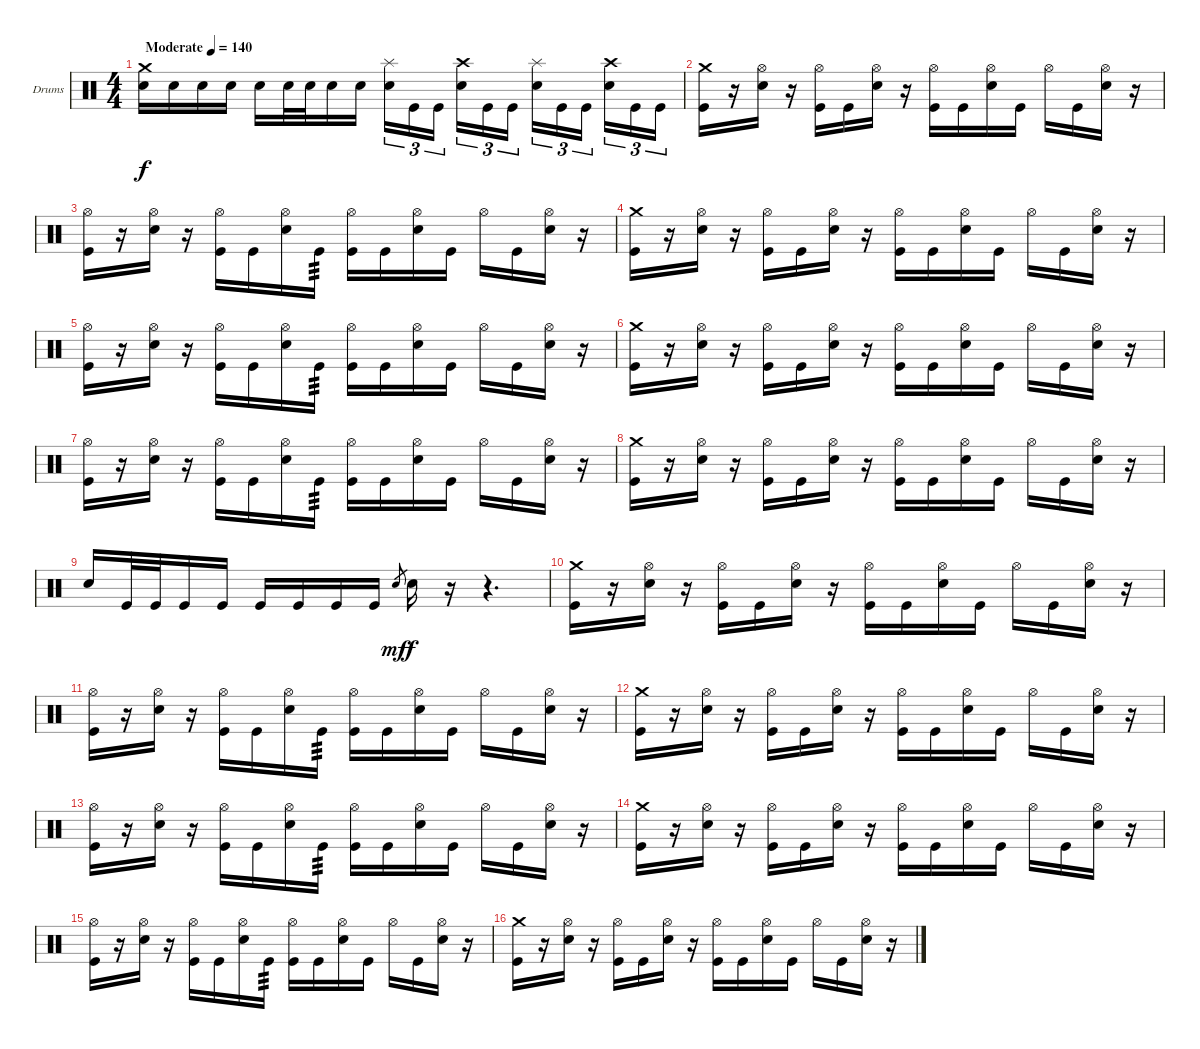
\bracketExtendMode groupsimilarinstruments
\firstSystemTrackNameOrientation horizontal
\otherSystemsTrackNameOrientation horizontal
\track ("Drumkit" "Drums") {instrument percussion}
\staff {score}
\articulation defaults
\ts (4 4)
\beaming (8 2 2 2 2)
\tempo (140 "Moderate")
\clef neutral
\ks c
("Crash medium (hit)" "Snare (hit) 2").16{dy f} "Snare (hit) 2".16 "Snare (hit) 2".16 "Snare (hit) 2".16 "Snare (hit) 2".16 "Snare (hit) 2".32 "Snare (hit) 2".32 "Snare (hit) 2".16 "Snare (hit) 2".16 ("Splash (hit)" "Snare (hit) 2").16{tu (3 2)} "Kick (hit)".16{tu (3 2)} "Kick (hit)".16{tu (3 2)} ("Crash high (hit)" "Snare (hit) 2").16{tu (3 2)} "Kick (hit)".16{tu (3 2)} "Kick (hit)".16{tu (3 2)} ("Splash (hit)" "Snare (hit) 2").16{tu (3 2)} "Kick (hit)".16{tu (3 2)} "Kick (hit)".16{tu (3 2)} ("Crash high (hit)" "Snare (hit) 2").16{tu (3 2)} "Kick (hit)".16{tu (3 2)} "Kick (hit)".16{tu (3 2)} |
("Crash medium (hit)" "Kick (hit)").16 r.16 ("Hi-Hat (open)" "Snare (hit) 2").16 r.16 ("Hi-Hat (open)" "Kick (hit)").16 "Kick (hit)".16 ("Hi-Hat (open)" "Snare (hit) 2").16 r.16 ("Hi-Hat (open)" "Kick (hit)").16 "Kick (hit)".16 ("Hi-Hat (open)" "Snare (hit) 2").16 "Kick (hit)".16 "Hi-Hat (open)".16 "Kick (hit)".16 ("Hi-Hat (open)" "Snare (hit) 2").16 r.16 |
("Hi-Hat (open)" "Kick (hit)").16 r.16 ("Hi-Hat (open)" "Snare (hit) 2").16 r.16 ("Hi-Hat (open)" "Kick (hit)").16 "Kick (hit)".16 ("Hi-Hat (open)" "Snare (hit) 2").16 "Kick (hit)".16{tp 3} ("Hi-Hat (open)" "Kick (hit)").16 "Kick (hit)".16 ("Hi-Hat (open)" "Snare (hit) 2").16 "Kick (hit)".16 "Hi-Hat (open)".16 "Kick (hit)".16 ("Hi-Hat (open)" "Snare (hit) 2").16 r.16 |
("Crash medium (hit)" "Kick (hit)").16 r.16 ("Hi-Hat (open)" "Snare (hit) 2").16 r.16 ("Hi-Hat (open)" "Kick (hit)").16 "Kick (hit)".16 ("Hi-Hat (open)" "Snare (hit) 2").16 r.16 ("Hi-Hat (open)" "Kick (hit)").16 "Kick (hit)".16 ("Hi-Hat (open)" "Snare (hit) 2").16 "Kick (hit)".16 "Hi-Hat (open)".16 "Kick (hit)".16 ("Hi-Hat (open)" "Snare (hit) 2").16 r.16 |
("Hi-Hat (open)" "Kick (hit)").16 r.16 ("Hi-Hat (open)" "Snare (hit) 2").16 r.16 ("Hi-Hat (open)" "Kick (hit)").16 "Kick (hit)".16 ("Hi-Hat (open)" "Snare (hit) 2").16 "Kick (hit)".16{tp 3} ("Hi-Hat (open)" "Kick (hit)").16 "Kick (hit)".16 ("Hi-Hat (open)" "Snare (hit) 2").16 "Kick (hit)".16 "Hi-Hat (open)".16 "Kick (hit)".16 ("Hi-Hat (open)" "Snare (hit) 2").16 r.16 |
("Crash medium (hit)" "Kick (hit)").16 r.16 ("Hi-Hat (open)" "Snare (hit) 2").16 r.16 ("Hi-Hat (open)" "Kick (hit)").16 "Kick (hit)".16 ("Hi-Hat (open)" "Snare (hit) 2").16 r.16 ("Hi-Hat (open)" "Kick (hit)").16 "Kick (hit)".16 ("Hi-Hat (open)" "Snare (hit) 2").16 "Kick (hit)".16 "Hi-Hat (open)".16 "Kick (hit)".16 ("Hi-Hat (open)" "Snare (hit) 2").16 r.16 |
("Hi-Hat (open)" "Kick (hit)").16 r.16 ("Hi-Hat (open)" "Snare (hit) 2").16 r.16 ("Hi-Hat (open)" "Kick (hit)").16 "Kick (hit)".16 ("Hi-Hat (open)" "Snare (hit) 2").16 "Kick (hit)".16{tp 3} ("Hi-Hat (open)" "Kick (hit)").16 "Kick (hit)".16 ("Hi-Hat (open)" "Snare (hit) 2").16 "Kick (hit)".16 "Hi-Hat (open)".16 "Kick (hit)".16 ("Hi-Hat (open)" "Snare (hit) 2").16 r.16 |
("Crash medium (hit)" "Kick (hit)").16 r.16 ("Hi-Hat (open)" "Snare (hit) 2").16 r.16 ("Hi-Hat (open)" "Kick (hit)").16 "Kick (hit)".16 ("Hi-Hat (open)" "Snare (hit) 2").16 r.16 ("Hi-Hat (open)" "Kick (hit)").16 "Kick (hit)".16 ("Hi-Hat (open)" "Snare (hit) 2").16 "Kick (hit)".16 "Hi-Hat (open)".16 "Kick (hit)".16 ("Hi-Hat (open)" "Snare (hit) 2").16 r.16 |
"Snare (hit) 2".16 "Kick (hit)".32 "Kick (hit)".32 "Kick (hit)".16 "Kick (hit)".16 "Kick (hit)".16 "Kick (hit)".16 "Kick (hit)".16 "Kick (hit)".16 "Snare (hit) 2".8{gr dy mf} "Snare (hit) 2".16{dy f} r.16 r.4{d} |
("Crash medium (hit)" "Kick (hit)").16 r.16 ("Hi-Hat (open)" "Snare (hit) 2").16 r.16 ("Hi-Hat (open)" "Kick (hit)").16 "Kick (hit)".16 ("Hi-Hat (open)" "Snare (hit) 2").16 r.16 ("Hi-Hat (open)" "Kick (hit)").16 "Kick (hit)".16 ("Hi-Hat (open)" "Snare (hit) 2").16 "Kick (hit)".16 "Hi-Hat (open)".16 "Kick (hit)".16 ("Hi-Hat (open)" "Snare (hit) 2").16 r.16 |
("Hi-Hat (open)" "Kick (hit)").16 r.16 ("Hi-Hat (open)" "Snare (hit) 2").16 r.16 ("Hi-Hat (open)" "Kick (hit)").16 "Kick (hit)".16 ("Hi-Hat (open)" "Snare (hit) 2").16 "Kick (hit)".16{tp 3} ("Hi-Hat (open)" "Kick (hit)").16 "Kick (hit)".16 ("Hi-Hat (open)" "Snare (hit) 2").16 "Kick (hit)".16 "Hi-Hat (open)".16 "Kick (hit)".16 ("Hi-Hat (open)" "Snare (hit) 2").16 r.16 |
("Crash medium (hit)" "Kick (hit)").16 r.16 ("Hi-Hat (open)" "Snare (hit) 2").16 r.16 ("Hi-Hat (open)" "Kick (hit)").16 "Kick (hit)".16 ("Hi-Hat (open)" "Snare (hit) 2").16 r.16 ("Hi-Hat (open)" "Kick (hit)").16 "Kick (hit)".16 ("Hi-Hat (open)" "Snare (hit) 2").16 "Kick (hit)".16 "Hi-Hat (open)".16 "Kick (hit)".16 ("Hi-Hat (open)" "Snare (hit) 2").16 r.16 |
("Hi-Hat (open)" "Kick (hit)").16 r.16 ("Hi-Hat (open)" "Snare (hit) 2").16 r.16 ("Hi-Hat (open)" "Kick (hit)").16 "Kick (hit)".16 ("Hi-Hat (open)" "Snare (hit) 2").16 "Kick (hit)".16{tp 3} ("Hi-Hat (open)" "Kick (hit)").16 "Kick (hit)".16 ("Hi-Hat (open)" "Snare (hit) 2").16 "Kick (hit)".16 "Hi-Hat (open)".16 "Kick (hit)".16 ("Hi-Hat (open)" "Snare (hit) 2").16 r.16 |
("Crash medium (hit)" "Kick (hit)").16 r.16 ("Hi-Hat (open)" "Snare (hit) 2").16 r.16 ("Hi-Hat (open)" "Kick (hit)").16 "Kick (hit)".16 ("Hi-Hat (open)" "Snare (hit) 2").16 r.16 ("Hi-Hat (open)" "Kick (hit)").16 "Kick (hit)".16 ("Hi-Hat (open)" "Snare (hit) 2").16 "Kick (hit)".16 "Hi-Hat (open)".16 "Kick (hit)".16 ("Hi-Hat (open)" "Snare (hit) 2").16 r.16 |
("Hi-Hat (open)" "Kick (hit)").16 r.16 ("Hi-Hat (open)" "Snare (hit) 2").16 r.16 ("Hi-Hat (open)" "Kick (hit)").16 "Kick (hit)".16 ("Hi-Hat (open)" "Snare (hit) 2").16 "Kick (hit)".16{tp 3} ("Hi-Hat (open)" "Kick (hit)").16 "Kick (hit)".16 ("Hi-Hat (open)" "Snare (hit) 2").16 "Kick (hit)".16 "Hi-Hat (open)".16 "Kick (hit)".16 ("Hi-Hat (open)" "Snare (hit) 2").16 r.16 |
("Crash medium (hit)" "Kick (hit)").16 r.16 ("Hi-Hat (open)" "Snare (hit) 2").16 r.16 ("Hi-Hat (open)" "Kick (hit)").16 "Kick (hit)".16 ("Hi-Hat (open)" "Snare (hit) 2").16 r.16 ("Hi-Hat (open)" "Kick (hit)").16 "Kick (hit)".16 ("Hi-Hat (open)" "Snare (hit) 2").16 "Kick (hit)".16 "Hi-Hat (open)".16 "Kick (hit)".16 ("Hi-Hat (open)" "Snare (hit) 2").16 r.16
